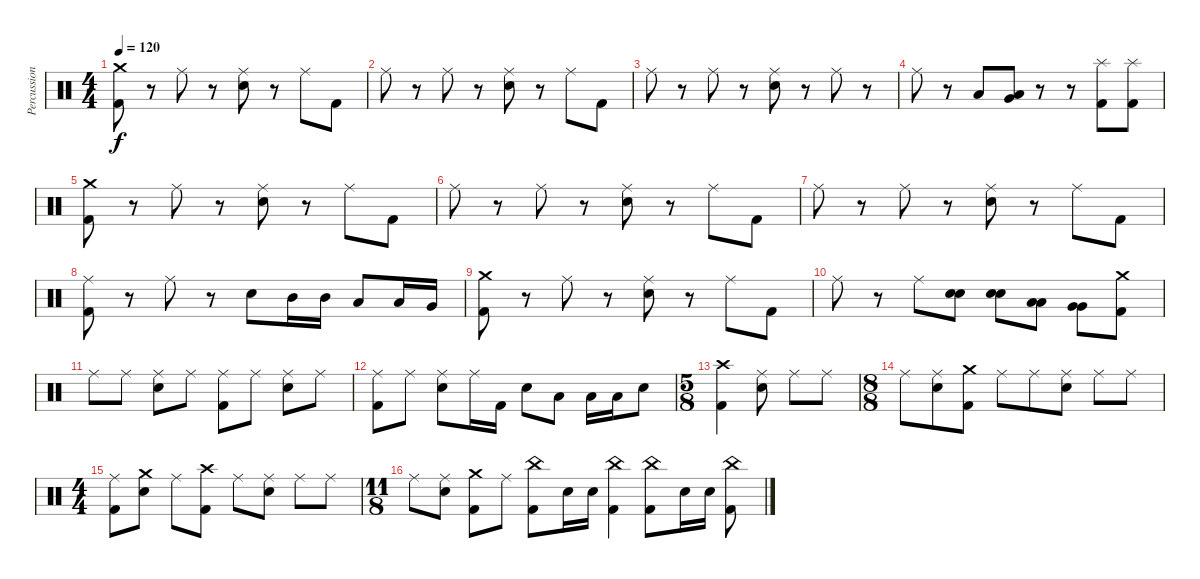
\track ("Percussion" "Percussion") {instrument percussion}
\staff {score}
\articulation defaults
\ts (4 4)
\tempo 120
\clef neutral
\ks c
("Kick (hit) 2" "Crash medium (hit)").8{dy f} r.8 "Ride (middle)".8 r.8 ("Electric Snare (hit)" "Ride (middle)").8 r.8 "Ride (middle)".8 "Kick (hit) 2".8 |
"Ride (middle)".8 r.8 "Ride (middle)".8 r.8 ("Electric Snare (hit)" "Ride (middle)").8 r.8 "Ride (middle)".8 "Kick (hit) 2".8 |
"Ride (middle)".8 r.8 "Ride (middle)".8 r.8 ("Electric Snare (hit)" "Ride (middle)").8 r.8 "Ride (middle)".8 r.8 |
"Ride (middle)".8 r.8 "Low Tom (hit)".8 ("Very Low Tom (hit)" "Low Floor Tom (hit)").8 r.8 r.8 ("Splash (hit)" "Kick (hit) 2").8 ("Splash (hit)" "Kick (hit) 2").8 |
("Kick (hit) 2" "Crash medium (hit)").8 r.8 "Ride (middle)".8 r.8 ("Electric Snare (hit)" "Ride (middle)").8 r.8 "Ride (middle)".8 "Kick (hit) 2".8 |
"Ride (middle)".8 r.8 "Ride (middle)".8 r.8 ("Electric Snare (hit)" "Ride (middle)").8 r.8 "Ride (middle)".8 "Kick (hit) 2".8 |
"Ride (middle)".8 r.8 "Ride (middle)".8 r.8 ("Electric Snare (hit)" "Ride (middle)").8 r.8 "Ride (middle)".8 "Kick (hit) 2".8 |
("Kick (hit) 2" "Ride (middle)").8 r.8 "Ride (middle)".8 r.8 "Electric Snare (hit)".8 "Mid Tom (hit)".16 "Mid Tom (hit)".16 "Low Tom (hit)".8 "Low Tom (hit)".16 "Very Low Tom (hit)".16 |
("Kick (hit) 2" "Crash medium (hit)").8 r.8 "Ride (middle)".8 r.8 ("Electric Snare (hit)" "Ride (middle)").8 r.8 "Ride (middle)".8 "Kick (hit) 2".8 |
"Ride (middle)".8 r.8 "Ride (middle)".8 ("Electric Snare (hit)" "Electric Snare (hit)").8 ("Electric Snare (hit)" "Electric Snare (hit)").8 ("Low Tom (hit)" "Low Tom (hit)").8 ("Very Low Tom (hit)" "Very Low Tom (hit)").8 ("Crash medium (hit)" "Kick (hit) 2").8 |
"Ride (middle)".8 "Ride (middle)".8 ("Electric Snare (hit)" "Ride (middle)").8 "Ride (middle)".8 ("Kick (hit) 2" "Ride (middle)").8 "Ride (middle)".8 ("Electric Snare (hit)" "Ride (middle)").8 "Ride (middle)".8 |
("Kick (hit) 2" "Ride (middle)").8 "Ride (middle)".8 ("Electric Snare (hit)" "Ride (middle)").8 "Ride (middle)".16 "Kick (hit) 2".16 "Electric Snare (hit)".8 "Low Floor Tom (hit)".8 "Low Floor Tom (hit)".16 "Low Floor Tom (hit)".16 "Electric Snare (hit)".8 |
\ts (5 8)
("Crash high (hit)" "Kick (hit) 2").4 ("Ride (middle)" "Electric Snare (hit)").8 "Ride (middle)".8 "Ride (middle)".8 |
\ts (8 8)
"Ride (middle)".8 ("Ride (middle)" "Electric Snare (hit)").8 ("Crash medium (hit)" "Kick (hit) 2").8 "Ride (middle)".8 "Ride (middle)".8 ("Ride (middle)" "Electric Snare (hit)").8 "Ride (middle)".8 "Ride (middle)".8 |
\ts (4 4)
("Ride (middle)" "Kick (hit) 2").8 ("Crash medium (hit)" "Electric Snare (hit)").8 "Ride (middle)".8 ("Crash high (hit)" "Kick (hit) 2").8 "Ride (middle)".8 ("Ride (middle)" "Electric Snare (hit)").8 "Ride (middle)".8 "Ride (middle)".8 |
\ts (11 8)
"Ride (middle)".8 ("Ride (middle)" "Electric Snare (hit)").8 ("Crash medium (hit)" "Kick (hit) 2").8 "Ride (middle)".8 ("China (hit)" "Kick (hit) 2").8 "Electric Snare (hit)".16 "Electric Snare (hit)".16 ("China (hit)" "Kick (hit) 2").4 ("Kick (hit) 2" "China (hit)").8 "Electric Snare (hit)".16 "Electric Snare (hit)".16 ("Kick (hit) 2" "China (hit)").8
